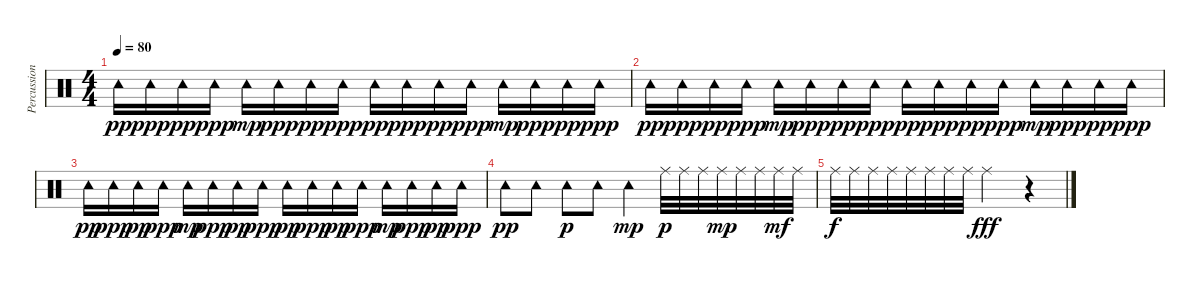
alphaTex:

\track ("Percussion" "Percussion") {instrument percussion}
\staff {score}
\articulation defaults
\ts (4 4)
\tempo 80
\clef neutral
\ks c "Tambourine (hit)".16{dy pp} "Tambourine (hit)".16{dy ppp} "Tambourine (hit)".16{dy pp} "Tambourine (hit)".16{dy ppp} "Tambourine (hit)".16{dy mp} "Tambourine (hit)".16{dy ppp} "Tambourine (hit)".16{dy pp} "Tambourine (hit)".16{dy ppp} "Tambourine (hit)".16{dy pp} "Tambourine (hit)".16{dy ppp} "Tambourine (hit)".16{dy pp} "Tambourine (hit)".16{dy ppp} "Tambourine (hit)".16{dy mp} "Tambourine (hit)".16{dy ppp} "Tambourine (hit)".16{dy pp} "Tambourine (hit)".16{dy ppp}
|
"Tambourine (hit)".16{dy pp} "Tambourine (hit)".16{dy ppp} "Tambourine (hit)".16{dy pp} "Tambourine (hit)".16{dy ppp} "Tambourine (hit)".16{dy mp} "Tambourine (hit)".16{dy ppp} "Tambourine (hit)".16{dy pp} "Tambourine (hit)".16{dy ppp} "Tambourine (hit)".16{dy pp} "Tambourine (hit)".16{dy ppp} "Tambourine (hit)".16{dy pp} "Tambourine (hit)".16{dy ppp} "Tambourine (hit)".16{dy mp} "Tambourine (hit)".16{dy ppp} "Tambourine (hit)".16{dy pp} "Tambourine (hit)".16{dy ppp} |
"Tambourine (hit)".16{dy pp} "Tambourine (hit)".16{dy ppp} "Tambourine (hit)".16{dy pp} "Tambourine (hit)".16{dy ppp} "Tambourine (hit)".16{dy mp} "Tambourine (hit)".16{dy ppp} "Tambourine (hit)".16{dy pp} "Tambourine (hit)".16{dy ppp} "Tambourine (hit)".16{dy pp} "Tambourine (hit)".16{dy ppp} "Tambourine (hit)".16{dy pp} "Tambourine (hit)".16{dy ppp} "Tambourine (hit)".16{dy mp} "Tambourine (hit)".16{dy ppp} "Tambourine (hit)".16{dy pp} "Tambourine (hit)".16{dy ppp} |
"Tambourine (hit)".8{dy pp} "Tambourine (hit)".8 "Tambourine (hit)".8{dy p} "Tambourine (hit)".8 "Tambourine (hit)".4{dy mp} "Ride (middle)".32{dy p} "Ride (middle)".32 "Ride (middle)".32 "Ride (middle)".32{dy mp} "Ride (middle)".32 "Ride (middle)".32 "Ride (middle)".32{dy mf} "Ride (middle)".32 |
"Ride (middle)".32{dy f} "Ride (middle)".32 "Ride (middle)".32 "Ride (middle)".32 "Ride (middle)".32 "Ride (middle)".32 "Ride (middle)".32 "Ride (middle)".32 "Ride (middle)".2{dy fff} r.4
